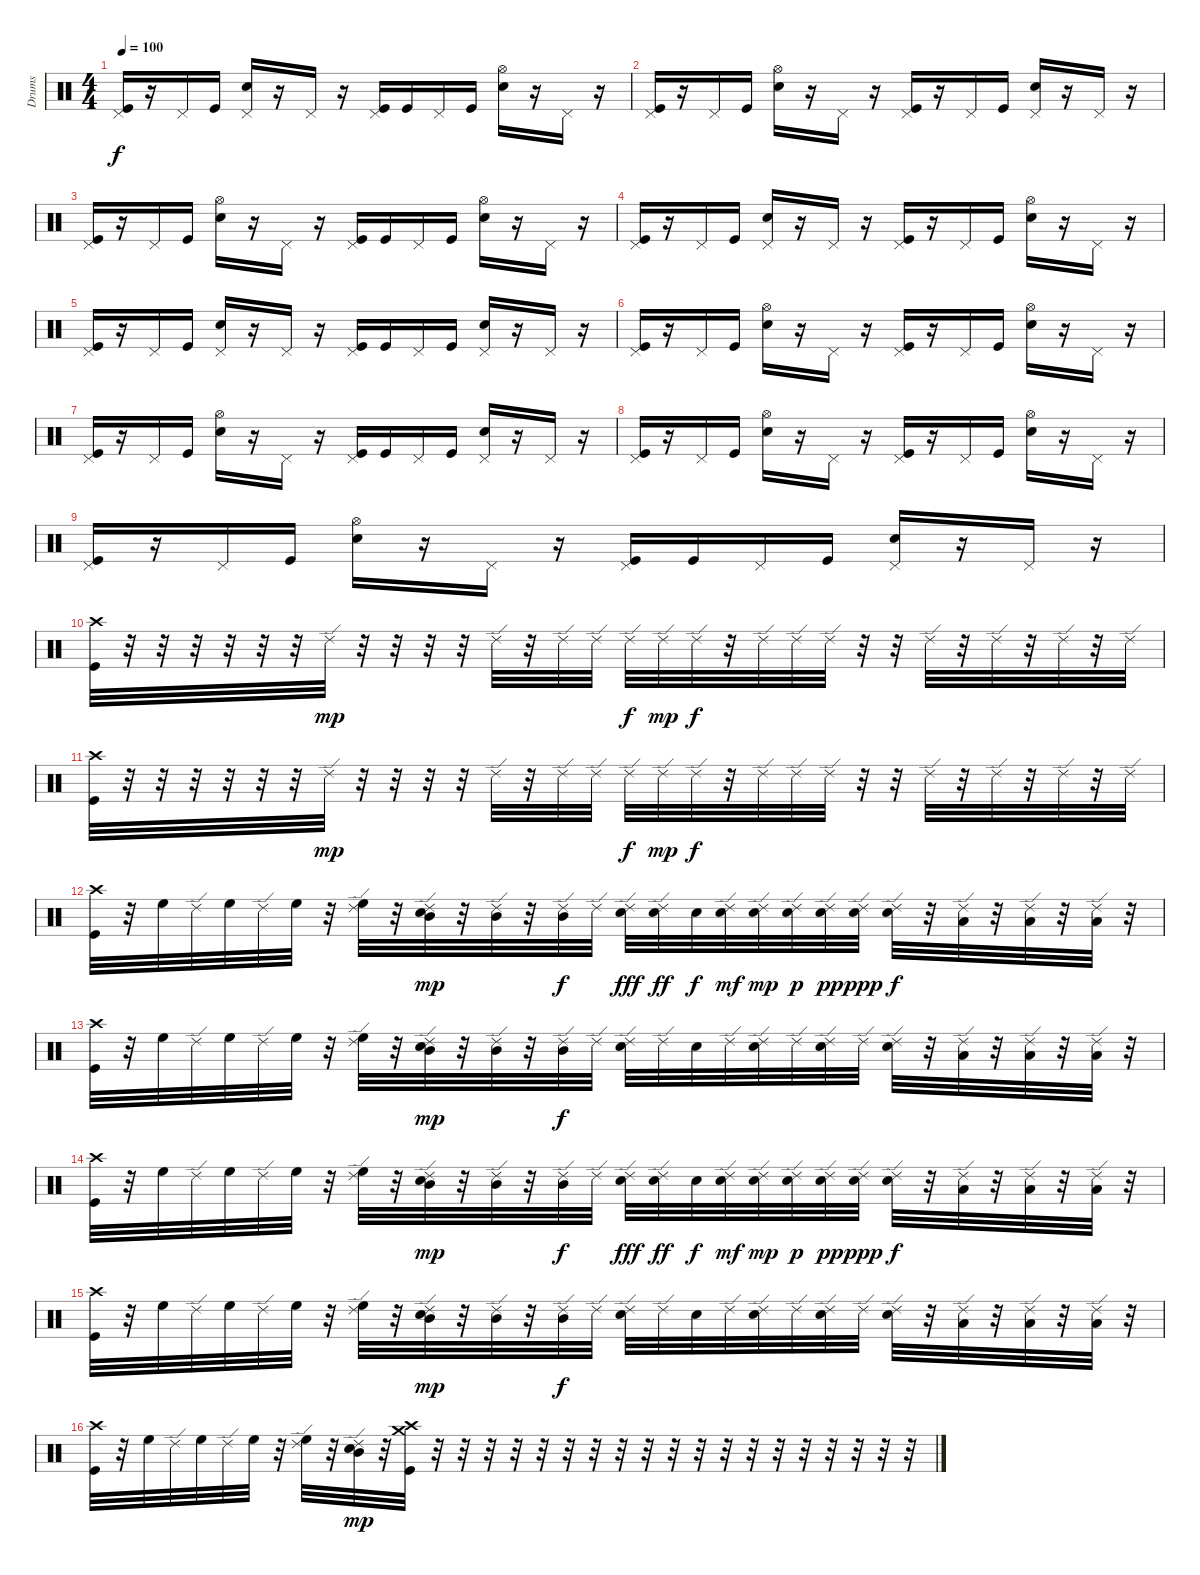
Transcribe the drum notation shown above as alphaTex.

\track ("Drums" "Drums") {instrument percussion}
\staff {score}
\articulation defaults
\ts (4 4)
\tempo 100
\clef neutral
\ks c
("Pedal Hi-Hat (hit)" "Kick (hit)").16{dy f} r.16 "Pedal Hi-Hat (hit)".16 "Kick (hit)".16 ("Pedal Hi-Hat (hit)" "Electric Snare (hit)").16 r.16 "Pedal Hi-Hat (hit)".16 r.16 ("Pedal Hi-Hat (hit)" "Kick (hit)").16 "Kick (hit)".16 "Pedal Hi-Hat (hit)".16 "Kick (hit)".16 ("Hi-Hat (open)" "Electric Snare (hit)").16 r.16 "Pedal Hi-Hat (hit)".16 r.16 |
("Pedal Hi-Hat (hit)" "Kick (hit)").16 r.16 "Pedal Hi-Hat (hit)".16 "Kick (hit)".16 ("Hi-Hat (open)" "Electric Snare (hit)").16 r.16 "Pedal Hi-Hat (hit)".16 r.16 ("Pedal Hi-Hat (hit)" "Kick (hit)").16 r.16 "Pedal Hi-Hat (hit)".16 "Kick (hit)".16 ("Pedal Hi-Hat (hit)" "Electric Snare (hit)").16 r.16 "Pedal Hi-Hat (hit)".16 r.16 |
("Pedal Hi-Hat (hit)" "Kick (hit)").16 r.16 "Pedal Hi-Hat (hit)".16 "Kick (hit)".16 ("Hi-Hat (open)" "Electric Snare (hit)").16 r.16 "Pedal Hi-Hat (hit)".16 r.16 ("Pedal Hi-Hat (hit)" "Kick (hit)").16 "Kick (hit)".16 "Pedal Hi-Hat (hit)".16 "Kick (hit)".16 ("Hi-Hat (open)" "Electric Snare (hit)").16 r.16 "Pedal Hi-Hat (hit)".16 r.16 |
("Pedal Hi-Hat (hit)" "Kick (hit)").16 r.16 "Pedal Hi-Hat (hit)".16 "Kick (hit)".16 ("Pedal Hi-Hat (hit)" "Electric Snare (hit)").16 r.16 "Pedal Hi-Hat (hit)".16 r.16 ("Pedal Hi-Hat (hit)" "Kick (hit)").16 r.16 "Pedal Hi-Hat (hit)".16 "Kick (hit)".16 ("Hi-Hat (open)" "Electric Snare (hit)").16 r.16 "Pedal Hi-Hat (hit)".16 r.16 |
("Pedal Hi-Hat (hit)" "Kick (hit)").16 r.16 "Pedal Hi-Hat (hit)".16 "Kick (hit)".16 ("Pedal Hi-Hat (hit)" "Electric Snare (hit)").16 r.16 "Pedal Hi-Hat (hit)".16 r.16 ("Pedal Hi-Hat (hit)" "Kick (hit)").16 "Kick (hit)".16 "Pedal Hi-Hat (hit)".16 "Kick (hit)".16 ("Pedal Hi-Hat (hit)" "Electric Snare (hit)").16 r.16 "Pedal Hi-Hat (hit)".16 r.16 |
("Pedal Hi-Hat (hit)" "Kick (hit)").16 r.16 "Pedal Hi-Hat (hit)".16 "Kick (hit)".16 ("Hi-Hat (open)" "Electric Snare (hit)").16 r.16 "Pedal Hi-Hat (hit)".16 r.16 ("Pedal Hi-Hat (hit)" "Kick (hit)").16 r.16 "Pedal Hi-Hat (hit)".16 "Kick (hit)".16 ("Hi-Hat (open)" "Electric Snare (hit)").16 r.16 "Pedal Hi-Hat (hit)".16 r.16 |
("Pedal Hi-Hat (hit)" "Kick (hit)").16 r.16 "Pedal Hi-Hat (hit)".16 "Kick (hit)".16 ("Hi-Hat (open)" "Electric Snare (hit)").16 r.16 "Pedal Hi-Hat (hit)".16 r.16 ("Pedal Hi-Hat (hit)" "Kick (hit)").16 "Kick (hit)".16 "Pedal Hi-Hat (hit)".16 "Kick (hit)".16 ("Pedal Hi-Hat (hit)" "Electric Snare (hit)").16 r.16 "Pedal Hi-Hat (hit)".16 r.16 |
("Pedal Hi-Hat (hit)" "Kick (hit)").16 r.16 "Pedal Hi-Hat (hit)".16 "Kick (hit)".16 ("Hi-Hat (open)" "Electric Snare (hit)").16 r.16 "Pedal Hi-Hat (hit)".16 r.16 ("Pedal Hi-Hat (hit)" "Kick (hit)").16 r.16 "Pedal Hi-Hat (hit)".16 "Kick (hit)".16 ("Hi-Hat (open)" "Electric Snare (hit)").16 r.16 "Pedal Hi-Hat (hit)".16 r.16 |
("Pedal Hi-Hat (hit)" "Kick (hit)").16 r.16 "Pedal Hi-Hat (hit)".16 "Kick (hit)".16 ("Hi-Hat (open)" "Electric Snare (hit)").16 r.16 "Pedal Hi-Hat (hit)".16 r.16 ("Pedal Hi-Hat (hit)" "Kick (hit)").16 "Kick (hit)".16 "Pedal Hi-Hat (hit)".16 "Kick (hit)".16 ("Pedal Hi-Hat (hit)" "Electric Snare (hit)").16 r.16 "Pedal Hi-Hat (hit)".16 r.16 |
("Crash high (hit)" "Kick (hit)").32{volume 9} r.32 r.32 r.32 r.32 r.32 r.32 "Ride (edge) 2".32{dy mp} r.32 r.32 r.32 r.32 "Ride (edge) 2".32 r.32 "Ride (edge) 2".32 "Ride (edge) 2".32 "Ride (edge) 2".32{dy f} "Ride (edge) 2".32{dy mp} "Ride (edge) 2".32{dy f} r.32 "Ride (edge) 2".32 "Ride (edge) 2".32 "Ride (edge) 2".32 r.32 r.32 "Ride (edge) 2".32 r.32 "Ride (edge) 2".32 r.32 "Ride (edge) 2".32 r.32 "Ride (edge) 2".32 |
("Crash high (hit)" "Kick (hit)").32 r.32 r.32 r.32 r.32 r.32 r.32 "Ride (edge) 2".32{dy mp} r.32 r.32 r.32 r.32 "Ride (edge) 2".32 r.32 "Ride (edge) 2".32 "Ride (edge) 2".32 "Ride (edge) 2".32{dy f} "Ride (edge) 2".32{dy mp} "Ride (edge) 2".32{dy f} r.32 "Ride (edge) 2".32 "Ride (edge) 2".32 "Ride (edge) 2".32 r.32 r.32 "Ride (edge) 2".32 r.32 "Ride (edge) 2".32 r.32 "Ride (edge) 2".32 r.32 "Ride (edge) 2".32 |
("Crash high (hit)" "Kick (hit)").32 r.32 "High Floor Tom (hit)".32 "Ride (edge) 2".32 "High Floor Tom (hit)".32 "Ride (edge) 2".32 "High Floor Tom (hit)".32 r.32 ("Ride (edge) 2" "High Floor Tom (hit)").32 r.32 ("Ride (edge) 2" "Electric Snare (hit)" "Mid Tom (hit)").32{dy mp} r.32 ("Ride (edge) 2" "Mid Tom (hit)").32 r.32 ("Ride (edge) 2" "Mid Tom (hit)").32{dy f} "Ride (edge) 2".32 ("Ride (edge) 2" "Electric Snare (hit)").32{dy fff} ("Ride (edge) 2" "Electric Snare (hit)").32{dy ff} "Electric Snare (hit)".32{dy f} ("Ride (edge) 2" "Electric Snare (hit)").32{dy mf} ("Ride (edge) 2" "Electric Snare (hit)").32{dy mp} ("Ride (edge) 2" "Electric Snare (hit)").32{dy p} ("Ride (edge) 2" "Electric Snare (hit)").32{dy pp} ("Ride (edge) 2" "Electric Snare (hit)").32{dy ppp} ("Ride (edge) 2" "Electric Snare (hit)").32{dy f} r.32 ("Ride (edge) 2" "Low Tom (hit)").32 r.32 ("Ride (edge) 2" "Low Tom (hit)").32 r.32 ("Ride (edge) 2" "Low Tom (hit)").32 r.32 |
("Crash high (hit)" "Kick (hit)").32 r.32 "High Floor Tom (hit)".32 "Ride (edge) 2".32 "High Floor Tom (hit)".32 "Ride (edge) 2".32 "High Floor Tom (hit)".32 r.32 ("Ride (edge) 2" "High Floor Tom (hit)").32 r.32 ("Ride (edge) 2" "Electric Snare (hit)" "Mid Tom (hit)").32{dy mp} r.32 ("Ride (edge) 2" "Mid Tom (hit)").32 r.32 ("Ride (edge) 2" "Mid Tom (hit)").32{dy f} "Ride (edge) 2".32 ("Ride (edge) 2" "Electric Snare (hit)").32 "Ride (edge) 2".32 "Electric Snare (hit)".32 "Ride (edge) 2".32 ("Ride (edge) 2" "Electric Snare (hit)").32 "Ride (edge) 2".32 ("Ride (edge) 2" "Electric Snare (hit)").32 "Ride (edge) 2".32 ("Ride (edge) 2" "Electric Snare (hit)").32 r.32 ("Ride (edge) 2" "Low Tom (hit)").32 r.32 ("Ride (edge) 2" "Low Tom (hit)").32 r.32 ("Ride (edge) 2" "Low Tom (hit)").32 r.32 |
("Crash high (hit)" "Kick (hit)").32 r.32 "High Floor Tom (hit)".32 "Ride (edge) 2".32 "High Floor Tom (hit)".32 "Ride (edge) 2".32 "High Floor Tom (hit)".32 r.32 ("Ride (edge) 2" "High Floor Tom (hit)").32 r.32 ("Ride (edge) 2" "Electric Snare (hit)" "Mid Tom (hit)").32{dy mp} r.32 ("Ride (edge) 2" "Mid Tom (hit)").32 r.32 ("Ride (edge) 2" "Mid Tom (hit)").32{dy f} "Ride (edge) 2".32 ("Ride (edge) 2" "Electric Snare (hit)").32{dy fff} ("Ride (edge) 2" "Electric Snare (hit)").32{dy ff} "Electric Snare (hit)".32{dy f} ("Ride (edge) 2" "Electric Snare (hit)").32{dy mf} ("Ride (edge) 2" "Electric Snare (hit)").32{dy mp} ("Ride (edge) 2" "Electric Snare (hit)").32{dy p} ("Ride (edge) 2" "Electric Snare (hit)").32{dy pp} ("Ride (edge) 2" "Electric Snare (hit)").32{dy ppp} ("Ride (edge) 2" "Electric Snare (hit)").32{dy f} r.32 ("Ride (edge) 2" "Low Tom (hit)").32 r.32 ("Ride (edge) 2" "Low Tom (hit)").32 r.32 ("Ride (edge) 2" "Low Tom (hit)").32 r.32 |
("Crash high (hit)" "Kick (hit)").32 r.32 "High Floor Tom (hit)".32 "Ride (edge) 2".32 "High Floor Tom (hit)".32 "Ride (edge) 2".32 "High Floor Tom (hit)".32 r.32 ("Ride (edge) 2" "High Floor Tom (hit)").32 r.32 ("Ride (edge) 2" "Electric Snare (hit)" "Mid Tom (hit)").32{dy mp} r.32 ("Ride (edge) 2" "Mid Tom (hit)").32 r.32 ("Ride (edge) 2" "Mid Tom (hit)").32{dy f} "Ride (edge) 2".32 ("Ride (edge) 2" "Electric Snare (hit)").32 "Ride (edge) 2".32 "Electric Snare (hit)".32 "Ride (edge) 2".32 ("Ride (edge) 2" "Electric Snare (hit)").32 "Ride (edge) 2".32 ("Ride (edge) 2" "Electric Snare (hit)").32 "Ride (edge) 2".32 ("Ride (edge) 2" "Electric Snare (hit)").32 r.32 ("Ride (edge) 2" "Low Tom (hit)").32 r.32 ("Ride (edge) 2" "Low Tom (hit)").32 r.32 ("Ride (edge) 2" "Low Tom (hit)").32 r.32 |
("Crash high (hit)" "Kick (hit)").32 r.32 "High Floor Tom (hit)".32 "Ride (edge) 2".32 "High Floor Tom (hit)".32 "Ride (edge) 2".32 "High Floor Tom (hit)".32 r.32 ("Ride (edge) 2" "High Floor Tom (hit)").32 r.32 ("Ride (edge) 2" "Electric Snare (hit)" "Mid Tom (hit)").32{dy mp} r.32 ("Crash high (hit)" "Crash medium (hit)" "Kick (hit)").32 r.32 r.32 r.32 r.32 r.32 r.32 r.32 r.32 r.32 r.32 r.32 r.32 r.32 r.32 r.32 r.32 r.32 r.32 r.32
